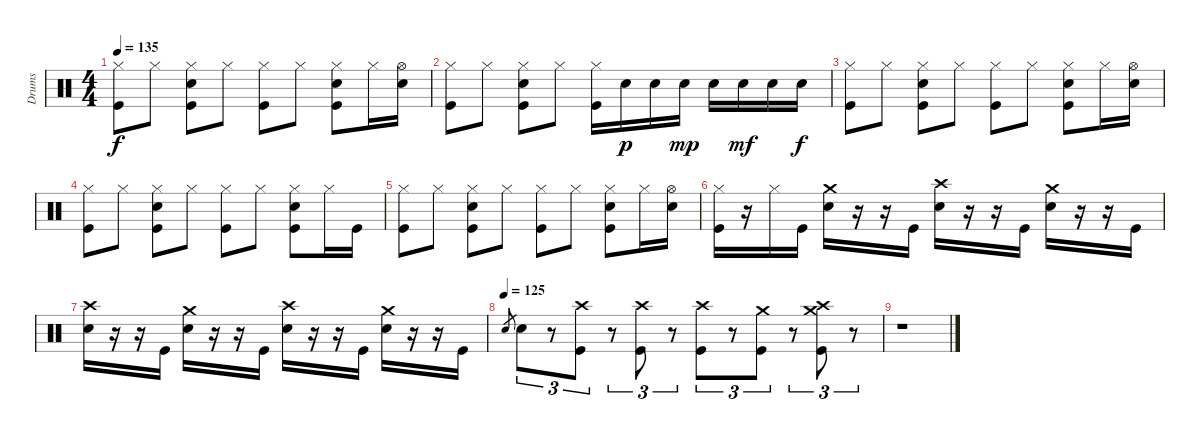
\track ("Drums" "Drums") {instrument percussion}
\staff {score}
\articulation defaults
\ts (4 4)
\tempo 135
\clef neutral
\ks c
("Kick (hit)" "Hi-Hat (closed)").8{dy f} "Hi-Hat (closed)".8 ("Kick (hit)" "Electric Snare (hit)" "Hi-Hat (closed)").8 "Hi-Hat (closed)".8 ("Kick (hit)" "Hi-Hat (closed)").8 "Hi-Hat (closed)".8 ("Kick (hit)" "Electric Snare (hit)" "Hi-Hat (closed)").8 "Hi-Hat (closed)".16 ("Electric Snare (hit)" "Hi-Hat (open)").16 |
("Kick (hit)" "Hi-Hat (closed)").8 "Hi-Hat (closed)".8 ("Kick (hit)" "Electric Snare (hit)" "Hi-Hat (closed)").8 "Hi-Hat (closed)".8 ("Kick (hit)" "Hi-Hat (closed)").16 "Electric Snare (hit)".16{dy p} "Electric Snare (hit)".16 "Electric Snare (hit)".16{dy mp} "Electric Snare (hit)".16 "Electric Snare (hit)".16{dy mf} "Electric Snare (hit)".16 "Electric Snare (hit)".16{dy f} |
("Kick (hit)" "Hi-Hat (closed)").8 "Hi-Hat (closed)".8 ("Kick (hit)" "Electric Snare (hit)" "Hi-Hat (closed)").8 "Hi-Hat (closed)".8 ("Kick (hit)" "Hi-Hat (closed)").8 "Hi-Hat (closed)".8 ("Kick (hit)" "Electric Snare (hit)" "Hi-Hat (closed)").8 "Hi-Hat (closed)".16 ("Electric Snare (hit)" "Hi-Hat (open)").16 |
("Kick (hit)" "Hi-Hat (closed)").8 "Hi-Hat (closed)".8 ("Kick (hit)" "Electric Snare (hit)" "Hi-Hat (closed)").8 "Hi-Hat (closed)".8 ("Kick (hit)" "Hi-Hat (closed)").8 "Hi-Hat (closed)".8 ("Kick (hit)" "Electric Snare (hit)" "Hi-Hat (closed)").8 "Hi-Hat (closed)".16 "Kick (hit)".16 |
("Kick (hit)" "Hi-Hat (closed)").8 "Hi-Hat (closed)".8 ("Kick (hit)" "Electric Snare (hit)" "Hi-Hat (closed)").8 "Hi-Hat (closed)".8 ("Kick (hit)" "Hi-Hat (closed)").8 "Hi-Hat (closed)".8 ("Kick (hit)" "Electric Snare (hit)" "Hi-Hat (closed)").8 "Hi-Hat (closed)".16 ("Electric Snare (hit)" "Hi-Hat (open)").16 |
("Kick (hit)" "Hi-Hat (closed)").16 r.16 "Hi-Hat (closed)".16 "Kick (hit)".16 ("Electric Snare (hit)" "Crash medium (hit)").16 r.16 r.16 "Kick (hit)".16 ("Electric Snare (hit)" "Crash high (hit)").16 r.16 r.16 "Kick (hit)".16 ("Electric Snare (hit)" "Crash medium (hit)").16 r.16 r.16 "Kick (hit)".16 |
("Electric Snare (hit)" "Crash high (hit)").16 r.16 r.16 "Kick (hit)".16 ("Electric Snare (hit)" "Crash medium (hit)").16 r.16 r.16 "Kick (hit)".16 ("Electric Snare (hit)" "Crash high (hit)").16 r.16 r.16 "Kick (hit)".16 ("Electric Snare (hit)" "Crash medium (hit)").16 r.16 r.16 "Kick (hit)".16 |
\tempo (125)
"Electric Snare (hit)".8{gr} "Electric Snare (hit)".8{tu (3 2)} r.8{tu (3 2)} ("Kick (hit)" "Crash high (hit)").8{tu (3 2)} r.8{tu (3 2)} ("Kick (hit)" "Crash high (hit)").8{tu (3 2)} r.8{tu (3 2)} ("Kick (hit)" "Crash high (hit)").8{tu (3 2)} r.8{tu (3 2)} ("Kick (hit)" "Crash medium (hit)").8{tu (3 2)} r.8{tu (3 2)} ("Kick (hit)" "Crash medium (hit)" "Crash high (hit)").8{tu (3 2)} r.8{tu (3 2)} |
r.1
